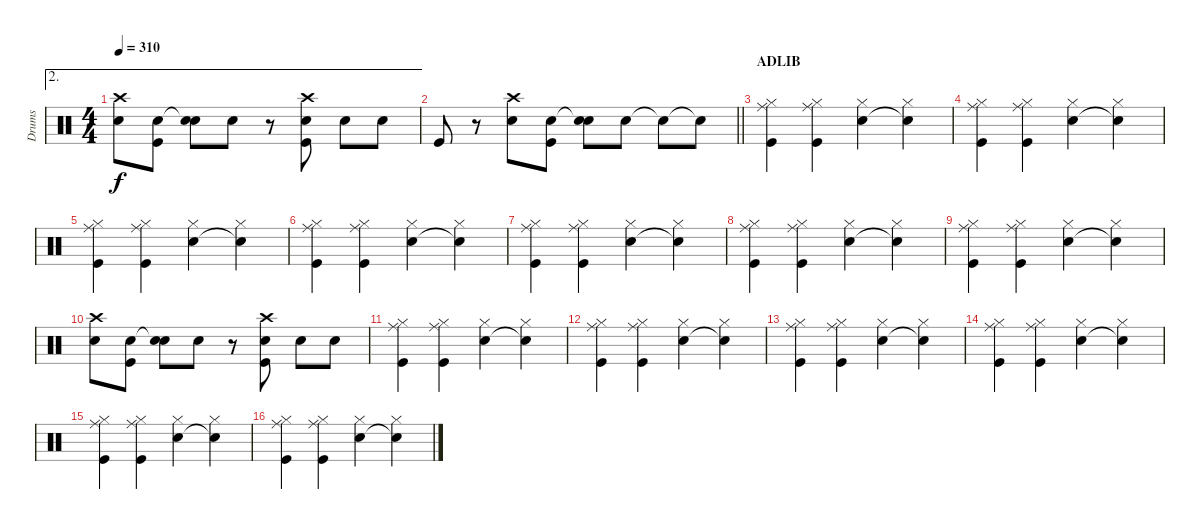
\track ("Drums" "Drums") {instrument percussion}
\staff {score}
\articulation defaults
\ae 2
\ts (4 4)
\tempo 310
\clef neutral
\ks c
("Crash high (hit)" "Snare (hit) 2").8{dy f} ("Snare (hit) 2" "Kick (hit)").8 ("Snare (hit)"{t} "Snare (hit) 2").8 "Snare (hit) 2".8 r.8 ("Crash high (hit)" "Snare (hit) 2" "Kick (hit)").8 "Snare (hit) 2".8 "Snare (hit) 2".8 |
\barLineRight lightlight "Kick (hit)".8
r.8 ("Crash high (hit)" "Snare (hit) 2").8 ("Snare (hit) 2" "Kick (hit)").8 ("Snare (hit)"{t} "Snare (hit) 2").8 "Snare (hit) 2".8 "Snare (hit)"{t}.8 "Snare (hit)"{t}.8 |
\section ("" "ADLIB")
("Ride (middle)" "Hi-Hat (closed)" "Kick (hit)").4 ("Ride (middle)" "Hi-Hat (closed)" "Kick (hit)").4 ("Snare (hit) 2" "Hi-Hat (closed)").4 ("Snare (hit)"{t} "Hi-Hat (closed)").4 |
("Ride (middle)" "Hi-Hat (closed)" "Kick (hit)").4 ("Ride (middle)" "Hi-Hat (closed)" "Kick (hit)").4 ("Snare (hit) 2" "Hi-Hat (closed)").4 ("Snare (hit)"{t} "Hi-Hat (closed)").4 |
("Ride (middle)" "Hi-Hat (closed)" "Kick (hit)").4 ("Ride (middle)" "Hi-Hat (closed)" "Kick (hit)").4 ("Snare (hit) 2" "Hi-Hat (closed)").4 ("Snare (hit)"{t} "Hi-Hat (closed)").4 |
("Ride (middle)" "Hi-Hat (closed)" "Kick (hit)").4 ("Ride (middle)" "Hi-Hat (closed)" "Kick (hit)").4 ("Snare (hit) 2" "Hi-Hat (closed)").4 ("Snare (hit)"{t} "Hi-Hat (closed)").4 |
("Ride (middle)" "Hi-Hat (closed)" "Kick (hit)").4 ("Ride (middle)" "Hi-Hat (closed)" "Kick (hit)").4 ("Snare (hit) 2" "Hi-Hat (closed)").4 ("Snare (hit)"{t} "Hi-Hat (closed)").4 |
("Ride (middle)" "Hi-Hat (closed)" "Kick (hit)").4 ("Ride (middle)" "Hi-Hat (closed)" "Kick (hit)").4 ("Snare (hit) 2" "Hi-Hat (closed)").4 ("Snare (hit)"{t} "Hi-Hat (closed)").4 |
("Ride (middle)" "Hi-Hat (closed)" "Kick (hit)").4 ("Ride (middle)" "Hi-Hat (closed)" "Kick (hit)").4 ("Snare (hit) 2" "Hi-Hat (closed)").4 ("Snare (hit)"{t} "Hi-Hat (closed)").4 |
("Crash high (hit)" "Snare (hit) 2").8 ("Snare (hit) 2" "Kick (hit)").8 ("Snare (hit)"{t} "Snare (hit) 2").8 "Snare (hit) 2".8 r.8 ("Crash high (hit)" "Snare (hit) 2" "Kick (hit)").8 "Snare (hit) 2".8 "Snare (hit) 2".8 |
("Ride (middle)" "Hi-Hat (closed)" "Kick (hit)").4 ("Ride (middle)" "Hi-Hat (closed)" "Kick (hit)").4 ("Snare (hit) 2" "Hi-Hat (closed)").4 ("Snare (hit)"{t} "Hi-Hat (closed)").4 |
("Ride (middle)" "Hi-Hat (closed)" "Kick (hit)").4 ("Ride (middle)" "Hi-Hat (closed)" "Kick (hit)").4 ("Snare (hit) 2" "Hi-Hat (closed)").4 ("Snare (hit)"{t} "Hi-Hat (closed)").4 |
("Ride (middle)" "Hi-Hat (closed)" "Kick (hit)").4 ("Ride (middle)" "Hi-Hat (closed)" "Kick (hit)").4 ("Snare (hit) 2" "Hi-Hat (closed)").4 ("Snare (hit)"{t} "Hi-Hat (closed)").4 |
("Ride (middle)" "Hi-Hat (closed)" "Kick (hit)").4 ("Ride (middle)" "Hi-Hat (closed)" "Kick (hit)").4 ("Snare (hit) 2" "Hi-Hat (closed)").4 ("Snare (hit)"{t} "Hi-Hat (closed)").4 |
("Ride (middle)" "Hi-Hat (closed)" "Kick (hit)").4 ("Ride (middle)" "Hi-Hat (closed)" "Kick (hit)").4 ("Snare (hit) 2" "Hi-Hat (closed)").4 ("Snare (hit)"{t} "Hi-Hat (closed)").4 |
("Ride (middle)" "Hi-Hat (closed)" "Kick (hit)").4 ("Ride (middle)" "Hi-Hat (closed)" "Kick (hit)").4 ("Snare (hit) 2" "Hi-Hat (closed)").4 ("Snare (hit)"{t} "Hi-Hat (closed)").4
